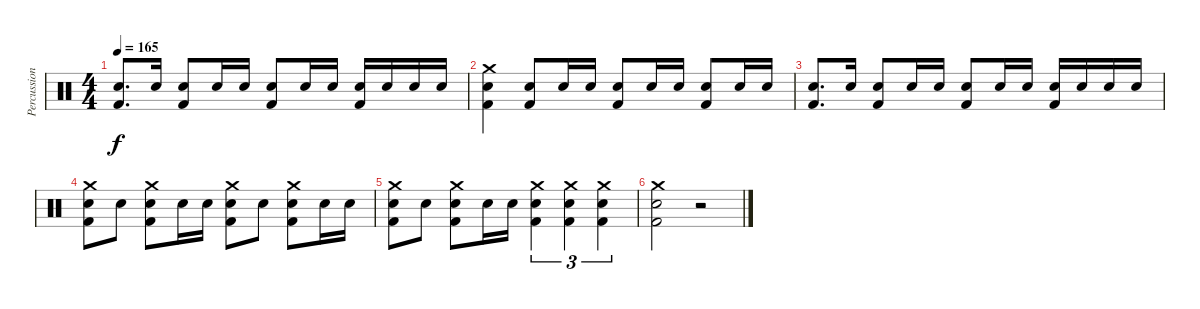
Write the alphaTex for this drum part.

\track ("Percussion" "Percussion") {instrument percussion}
\staff {score}
\articulation defaults
\ts (4 4)
\tempo 165
\clef neutral
\ks c
("Electric Snare (hit)" "Kick (hit) 2").8{d dy f} "Electric Snare (hit)".16 ("Electric Snare (hit)" "Kick (hit) 2").8 "Electric Snare (hit)".16 "Electric Snare (hit)".16 ("Electric Snare (hit)" "Kick (hit) 2").8 "Electric Snare (hit)".16 "Electric Snare (hit)".16 ("Electric Snare (hit)" "Kick (hit) 2").16 "Electric Snare (hit)".16 "Electric Snare (hit)".16 "Electric Snare (hit)".16 |
("Crash medium (hit)" "Electric Snare (hit)" "Kick (hit) 2").4 ("Electric Snare (hit)" "Kick (hit) 2").8 "Electric Snare (hit)".16 "Electric Snare (hit)".16 ("Electric Snare (hit)" "Kick (hit) 2").8 "Electric Snare (hit)".16 "Electric Snare (hit)".16 ("Electric Snare (hit)" "Kick (hit) 2").8 "Electric Snare (hit)".16 "Electric Snare (hit)".16 |
("Electric Snare (hit)" "Kick (hit) 2").8{d} "Electric Snare (hit)".16 ("Electric Snare (hit)" "Kick (hit) 2").8 "Electric Snare (hit)".16 "Electric Snare (hit)".16 ("Electric Snare (hit)" "Kick (hit) 2").8 "Electric Snare (hit)".16 "Electric Snare (hit)".16 ("Electric Snare (hit)" "Kick (hit) 2").16 "Electric Snare (hit)".16 "Electric Snare (hit)".16 "Electric Snare (hit)".16 |
("Crash medium (hit)" "Electric Snare (hit)" "Kick (hit) 2").8 "Electric Snare (hit)".8 ("Crash medium (hit)" "Electric Snare (hit)" "Kick (hit) 2").8 "Electric Snare (hit)".16 "Electric Snare (hit)".16 ("Crash medium (hit)" "Electric Snare (hit)" "Kick (hit) 2").8 "Electric Snare (hit)".8 ("Crash medium (hit)" "Electric Snare (hit)" "Kick (hit) 2").8 "Electric Snare (hit)".16 "Electric Snare (hit)".16 |
("Crash medium (hit)" "Electric Snare (hit)" "Kick (hit) 2").8 "Electric Snare (hit)".8 ("Crash medium (hit)" "Electric Snare (hit)" "Kick (hit) 2").8 "Electric Snare (hit)".16 "Electric Snare (hit)".16 ("Crash medium (hit)" "Electric Snare (hit)" "Kick (hit) 2").4{tu (3 2)} ("Crash medium (hit)" "Electric Snare (hit)" "Kick (hit) 2").4{tu (3 2)} ("Crash medium (hit)" "Electric Snare (hit)" "Kick (hit) 2").4{tu (3 2)} |
("Crash medium (hit)" "Electric Snare (hit)" "Kick (hit) 2").2 r.2
